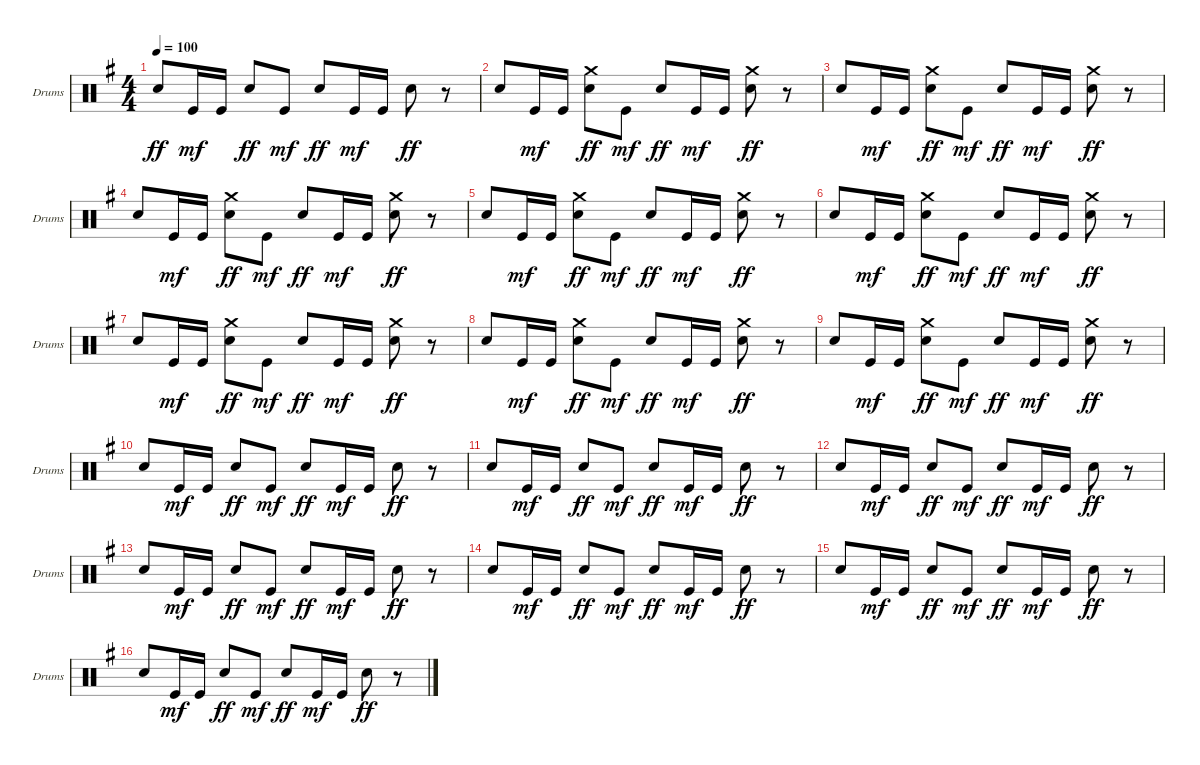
\defaultSystemsLayout 4
\bracketExtendMode groupsimilarinstruments
\singleTrackTrackNamePolicy allsystems
\multiTrackTrackNamePolicy allsystems
\firstSystemTrackNameOrientation horizontal
\otherSystemsTrackNameOrientation horizontal
\track ("Drumkit" "Drums") {instrument percussion}
\staff {score}
\articulation defaults
\ts (4 4)
\tempo 100
\clef neutral
\scale
0.333333
\ks g "Snare (hit) 2".8{dy ff} "Kick (hit)".16{dy mf} "Kick (hit)".16 "Snare (hit) 2".8{dy ff} "Kick (hit)".8{dy mf} "Snare (hit) 2".8{dy ff} "Kick (hit)".16{dy mf} "Kick (hit)".16 "Snare (hit) 2".8{dy ff}
r.8 |
\scale
0.333333 "Snare (hit) 2".8 "Kick (hit)".16{dy mf} "Kick (hit)".16 ("Snare (hit) 2" "Crash medium (hit)").8{dy ff} "Kick (hit)".8{dy mf} "Snare (hit) 2".8{dy ff} "Kick (hit)".16{dy mf} "Kick (hit)".16 ("Snare (hit) 2" "Crash medium (hit)").8{dy ff} r.8 |
\scale
0.333333 "Snare (hit) 2".8 "Kick (hit)".16{dy mf} "Kick (hit)".16 ("Snare (hit) 2" "Crash medium (hit)").8{dy ff} "Kick (hit)".8{dy mf} "Snare (hit) 2".8{dy ff} "Kick (hit)".16{dy mf} "Kick (hit)".16 ("Snare (hit) 2" "Crash medium (hit)").8{dy ff} r.8 |
\scale
0.333333 "Snare (hit) 2".8 "Kick (hit)".16{dy mf} "Kick (hit)".16 ("Snare (hit) 2" "Crash medium (hit)").8{dy ff} "Kick (hit)".8{dy mf} "Snare (hit) 2".8{dy ff} "Kick (hit)".16{dy mf} "Kick (hit)".16 ("Snare (hit) 2" "Crash medium (hit)").8{dy ff} r.8 |
\scale
0.333333 "Snare (hit) 2".8 "Kick (hit)".16{dy mf} "Kick (hit)".16 ("Snare (hit) 2" "Crash medium (hit)").8{dy ff} "Kick (hit)".8{dy mf} "Snare (hit) 2".8{dy ff} "Kick (hit)".16{dy mf} "Kick (hit)".16 ("Snare (hit) 2" "Crash medium (hit)").8{dy ff} r.8 |
\scale
0.333333 "Snare (hit) 2".8 "Kick (hit)".16{dy mf} "Kick (hit)".16 ("Snare (hit) 2" "Crash medium (hit)").8{dy ff} "Kick (hit)".8{dy mf} "Snare (hit) 2".8{dy ff} "Kick (hit)".16{dy mf} "Kick (hit)".16 ("Snare (hit) 2" "Crash medium (hit)").8{dy ff} r.8 |
\scale
0.333333 "Snare (hit) 2".8 "Kick (hit)".16{dy mf} "Kick (hit)".16 ("Snare (hit) 2" "Crash medium (hit)").8{dy ff} "Kick (hit)".8{dy mf} "Snare (hit) 2".8{dy ff} "Kick (hit)".16{dy mf} "Kick (hit)".16 ("Snare (hit) 2" "Crash medium (hit)").8{dy ff} r.8 |
\scale
0.333333 "Snare (hit) 2".8 "Kick (hit)".16{dy mf} "Kick (hit)".16 ("Snare (hit) 2" "Crash medium (hit)").8{dy ff} "Kick (hit)".8{dy mf} "Snare (hit) 2".8{dy ff} "Kick (hit)".16{dy mf} "Kick (hit)".16 ("Snare (hit) 2" "Crash medium (hit)").8{dy ff} r.8 |
\scale
0.333333 "Snare (hit) 2".8 "Kick (hit)".16{dy mf} "Kick (hit)".16 ("Snare (hit) 2" "Crash medium (hit)").8{dy ff} "Kick (hit)".8{dy mf} "Snare (hit) 2".8{dy ff} "Kick (hit)".16{dy mf} "Kick (hit)".16 ("Snare (hit) 2" "Crash medium (hit)").8{dy ff} r.8 |
\scale
0.333333 "Snare (hit) 2".8 "Kick (hit)".16{dy mf} "Kick (hit)".16 "Snare (hit) 2".8{dy ff} "Kick (hit)".8{dy mf} "Snare (hit) 2".8{dy ff} "Kick (hit)".16{dy mf} "Kick (hit)".16 "Snare (hit) 2".8{dy ff} r.8 |
\scale
0.333333 "Snare (hit) 2".8 "Kick (hit)".16{dy mf} "Kick (hit)".16 "Snare (hit) 2".8{dy ff} "Kick (hit)".8{dy mf} "Snare (hit) 2".8{dy ff} "Kick (hit)".16{dy mf} "Kick (hit)".16 "Snare (hit) 2".8{dy ff} r.8 |
\scale
0.333333 "Snare (hit) 2".8 "Kick (hit)".16{dy mf} "Kick (hit)".16 "Snare (hit) 2".8{dy ff} "Kick (hit)".8{dy mf} "Snare (hit) 2".8{dy ff} "Kick (hit)".16{dy mf} "Kick (hit)".16 "Snare (hit) 2".8{dy ff} r.8 |
\scale
0.333333 "Snare (hit) 2".8 "Kick (hit)".16{dy mf} "Kick (hit)".16 "Snare (hit) 2".8{dy ff} "Kick (hit)".8{dy mf} "Snare (hit) 2".8{dy ff} "Kick (hit)".16{dy mf} "Kick (hit)".16 "Snare (hit) 2".8{dy ff} r.8 |
\scale
0.333333 "Snare (hit) 2".8 "Kick (hit)".16{dy mf} "Kick (hit)".16 "Snare (hit) 2".8{dy ff} "Kick (hit)".8{dy mf} "Snare (hit) 2".8{dy ff} "Kick (hit)".16{dy mf} "Kick (hit)".16 "Snare (hit) 2".8{dy ff} r.8 |
\scale
0.333333 "Snare (hit) 2".8 "Kick (hit)".16{dy mf} "Kick (hit)".16 "Snare (hit) 2".8{dy ff} "Kick (hit)".8{dy mf} "Snare (hit) 2".8{dy ff} "Kick (hit)".16{dy mf} "Kick (hit)".16 "Snare (hit) 2".8{dy ff} r.8 |
"Snare (hit) 2".8 "Kick (hit)".16{dy mf} "Kick (hit)".16 "Snare (hit) 2".8{dy ff} "Kick (hit)".8{dy mf} "Snare (hit) 2".8{dy ff} "Kick (hit)".16{dy mf} "Kick (hit)".16 "Snare (hit) 2".8{dy ff} r.8
